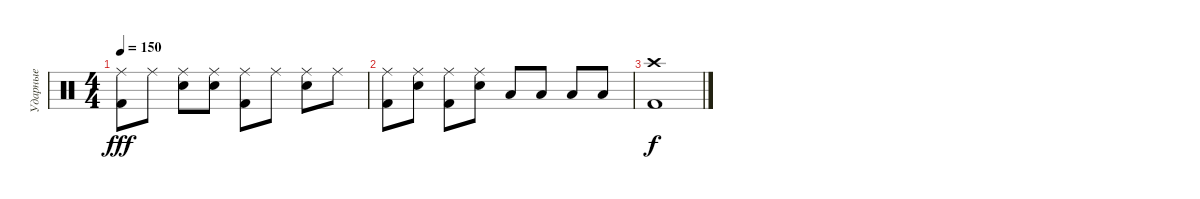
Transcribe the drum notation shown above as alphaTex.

\track ("Ударные" "Ударные") {instrument percussion}
\staff {score}
\articulation defaults
\ts (4 4)
\tempo 150
\clef neutral
\ks c
("Ride (middle)" "Kick (hit) 2").8{dy fff} "Ride (middle)".8 ("Ride (middle)" "Electric Snare (hit)").8 ("Ride (middle)" "Electric Snare (hit)").8 ("Ride (middle)" "Kick (hit) 2").8 "Ride (middle)".8 ("Ride (middle)" "Electric Snare (hit)").8 "Ride (middle)".8 |
("Ride (middle)" "Kick (hit) 2").8 ("Ride (middle)" "Electric Snare (hit)").8 ("Ride (middle)" "Kick (hit) 2").8 ("Ride (middle)" "Electric Snare (hit)").8 "Low Tom (hit)".8 "Low Tom (hit)".8 "Low Floor Tom (hit)".8 "Low Floor Tom (hit)".8 |
("Kick (hit) 2" "Crash high (hit)").1{dy f}
